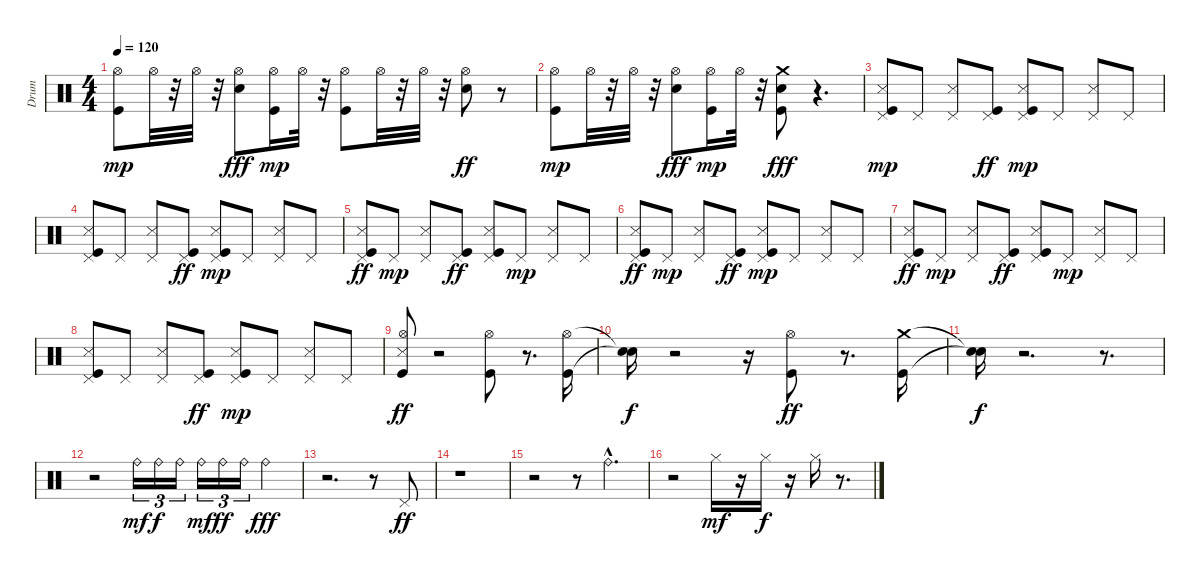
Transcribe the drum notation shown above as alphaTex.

\track ("Drum" "Drum") {instrument percussion}
\staff {score}
\articulation defaults
\ts (4 4)
\tempo 120
\clef neutral
\ks c
("Kick (hit)" "Hi-Hat (open)").8{dy mp} "Hi-Hat (open)".32 r.32 "Hi-Hat (open)".32 r.32 ("Hi-Hat (open)" "Snare (hit) 2").8{dy fff} ("Kick (hit)" "Hi-Hat (open)").16{dy mp} "Hi-Hat (open)".32 r.32 ("Kick (hit)" "Hi-Hat (open)").8 "Hi-Hat (open)".32 r.32 "Hi-Hat (open)".32 r.32 ("Snare (hit) 2" "Hi-Hat (open)").8{dy ff} r.8 |
("Kick (hit)" "Hi-Hat (open)").8{dy mp} "Hi-Hat (open)".32 r.32 "Hi-Hat (open)".32 r.32 ("Hi-Hat (open)" "Snare (hit) 2").8{dy fff} ("Kick (hit)" "Hi-Hat (open)").16{dy mp} "Hi-Hat (open)".32 r.32 ("Kick (hit)" "Snare (hit) 2" "Crash medium (hit)").8{dy fff} r.4{d} |
("Pedal Hi-Hat (hit)" "Kick (hit)" "Snare (side stick) 3").8{dy mp} "Pedal Hi-Hat (hit)".8 ("Pedal Hi-Hat (hit)" "Snare (side stick) 3").8 ("Pedal Hi-Hat (hit)" "Kick (hit)").8{dy ff} ("Kick (hit)" "Pedal Hi-Hat (hit)" "Snare (side stick) 3").8{dy mp} "Pedal Hi-Hat (hit)".8 ("Pedal Hi-Hat (hit)" "Snare (side stick) 3").8 "Pedal Hi-Hat (hit)".8 |
("Kick (hit)" "Pedal Hi-Hat (hit)" "Snare (side stick) 3").8 "Pedal Hi-Hat (hit)".8 ("Snare (side stick) 3" "Pedal Hi-Hat (hit)").8 ("Pedal Hi-Hat (hit)" "Kick (hit)").8{dy ff} ("Pedal Hi-Hat (hit)" "Kick (hit)" "Snare (side stick) 3").8{dy mp} "Pedal Hi-Hat (hit)".8 ("Snare (side stick) 3" "Pedal Hi-Hat (hit)").8 "Pedal Hi-Hat (hit)".8 |
("Pedal Hi-Hat (hit)" "Snare (side stick) 3" "Kick (hit)").8{dy ff} "Pedal Hi-Hat (hit)".8{dy mp} ("Pedal Hi-Hat (hit)" "Snare (side stick) 3").8 ("Pedal Hi-Hat (hit)" "Kick (hit)").8{dy ff} ("Pedal Hi-Hat (hit)" "Snare (side stick) 3" "Kick (hit)").8 "Pedal Hi-Hat (hit)".8{dy mp} ("Pedal Hi-Hat (hit)" "Snare (side stick) 3").8 "Pedal Hi-Hat (hit)".8 |
("Snare (side stick) 3" "Pedal Hi-Hat (hit)" "Kick (hit)").8{dy ff} "Pedal Hi-Hat (hit)".8{dy mp} ("Pedal Hi-Hat (hit)" "Snare (side stick) 3").8 ("Pedal Hi-Hat (hit)" "Kick (hit)").8{dy ff} ("Kick (hit)" "Snare (side stick) 3" "Pedal Hi-Hat (hit)").8{dy mp} "Pedal Hi-Hat (hit)".8 ("Pedal Hi-Hat (hit)" "Snare (side stick) 3").8 "Pedal Hi-Hat (hit)".8 |
("Pedal Hi-Hat (hit)" "Snare (side stick) 3" "Kick (hit)").8{dy ff} "Pedal Hi-Hat (hit)".8{dy mp} ("Snare (side stick) 3" "Pedal Hi-Hat (hit)").8 ("Pedal Hi-Hat (hit)" "Kick (hit)").8{dy ff} ("Pedal Hi-Hat (hit)" "Snare (side stick) 3" "Kick (hit)").8 "Pedal Hi-Hat (hit)".8{dy mp} ("Pedal Hi-Hat (hit)" "Snare (side stick) 3").8 "Pedal Hi-Hat (hit)".8 |
("Pedal Hi-Hat (hit)" "Kick (hit)" "Snare (side stick) 3").8 "Pedal Hi-Hat (hit)".8 ("Snare (side stick) 3" "Pedal Hi-Hat (hit)").8 ("Pedal Hi-Hat (hit)" "Kick (hit)").8{dy ff} ("Pedal Hi-Hat (hit)" "Kick (hit)" "Snare (side stick) 3").8{dy mp} "Pedal Hi-Hat (hit)".8 ("Snare (side stick) 3" "Pedal Hi-Hat (hit)").8 "Pedal Hi-Hat (hit)".8 |
("Snare (side stick) 3" "Hi-Hat (open)" "Kick (hit)").8{dy ff} r.2 ("Hi-Hat (open)" "Kick (hit)").8 r.8{d} ("Kick (hit)" "Hi-Hat (open)").16 |
("Snare (hit)"{t} "Snare (hit)"{t}).16{dy f} r.2 r.16 ("Hi-Hat (open)" "Kick (hit)").8{dy ff} r.8{d} ("Kick (hit)" "Crash medium (hit)").16 |
("Snare (hit)"{t} "Snare (hit)"{t}).16{dy f} r.2{d} r.8{d} |
r.2 "Ride (bell)".16{tu (3 2) dy mf} "Ride (bell)".16{tu (3 2) dy f} "Ride (bell)".16{tu (3 2)} "Ride (bell)".16{tu (3 2) dy mf} "Ride (bell)".16{tu (3 2) dy ff} "Ride (bell)".16{tu (3 2)} "Ride (bell)".4{dy fff} |
r.2{d} r.8 "Pedal Hi-Hat (hit)".8{dy ff} |
r.1 |
r.2 r.8 "Ride (bell)"{hac}.4{d} |
r.2 "Hi-Hat (closed)".16{dy mf} r.16 "Hi-Hat (closed)".16{dy f} r.16 "Hi-Hat (closed)".16 r.8{d}
